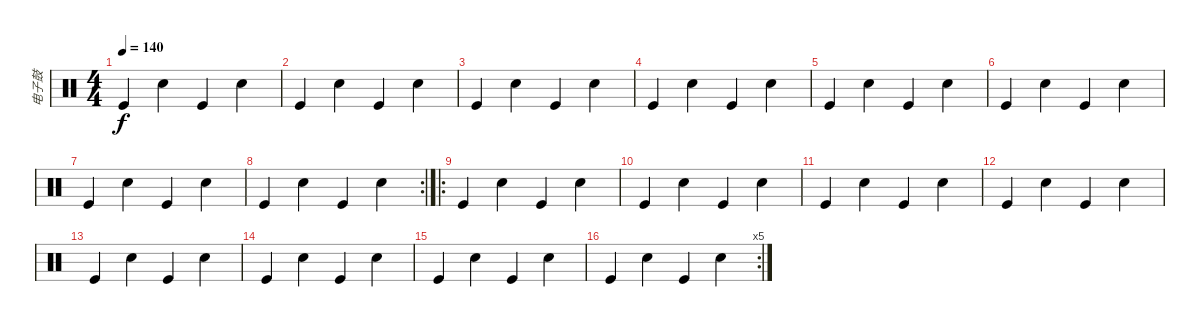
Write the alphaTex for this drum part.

\track ("电子鼓" "电子鼓") {instrument percussion}
\staff {score}
\articulation defaults
\ts (4 4)
\tempo 140
\clef neutral
\ks c "Kick (hit)".4{dy f} "Snare (hit) 2".4 "Kick (hit)".4 "Snare (hit) 2".4
|
"Kick (hit)".4 "Snare (hit) 2".4 "Kick (hit)".4 "Snare (hit) 2".4 |
"Kick (hit)".4 "Snare (hit) 2".4 "Kick (hit)".4 "Snare (hit) 2".4 |
"Kick (hit)".4 "Snare (hit) 2".4 "Kick (hit)".4 "Snare (hit) 2".4 |
"Kick (hit)".4 "Snare (hit) 2".4 "Kick (hit)".4 "Snare (hit) 2".4 |
"Kick (hit)".4 "Snare (hit) 2".4 "Kick (hit)".4 "Snare (hit) 2".4 |
"Kick (hit)".4 "Snare (hit) 2".4 "Kick (hit)".4 "Snare (hit) 2".4 |
\rc 2 "Kick (hit)".4 "Snare (hit) 2".4 "Kick (hit)".4 "Snare (hit) 2".4
|
\ro "Kick (hit)".4 "Snare (hit) 2".4 "Kick (hit)".4 "Snare (hit) 2".4
|
"Kick (hit)".4 "Snare (hit) 2".4 "Kick (hit)".4 "Snare (hit) 2".4 |
"Kick (hit)".4 "Snare (hit) 2".4 "Kick (hit)".4 "Snare (hit) 2".4 |
"Kick (hit)".4 "Snare (hit) 2".4 "Kick (hit)".4 "Snare (hit) 2".4 |
"Kick (hit)".4 "Snare (hit) 2".4 "Kick (hit)".4 "Snare (hit) 2".4 |
"Kick (hit)".4 "Snare (hit) 2".4 "Kick (hit)".4 "Snare (hit) 2".4 |
"Kick (hit)".4 "Snare (hit) 2".4 "Kick (hit)".4 "Snare (hit) 2".4 |
\rc 5 "Kick (hit)".4 "Snare (hit) 2".4 "Kick (hit)".4 "Snare (hit) 2".4
